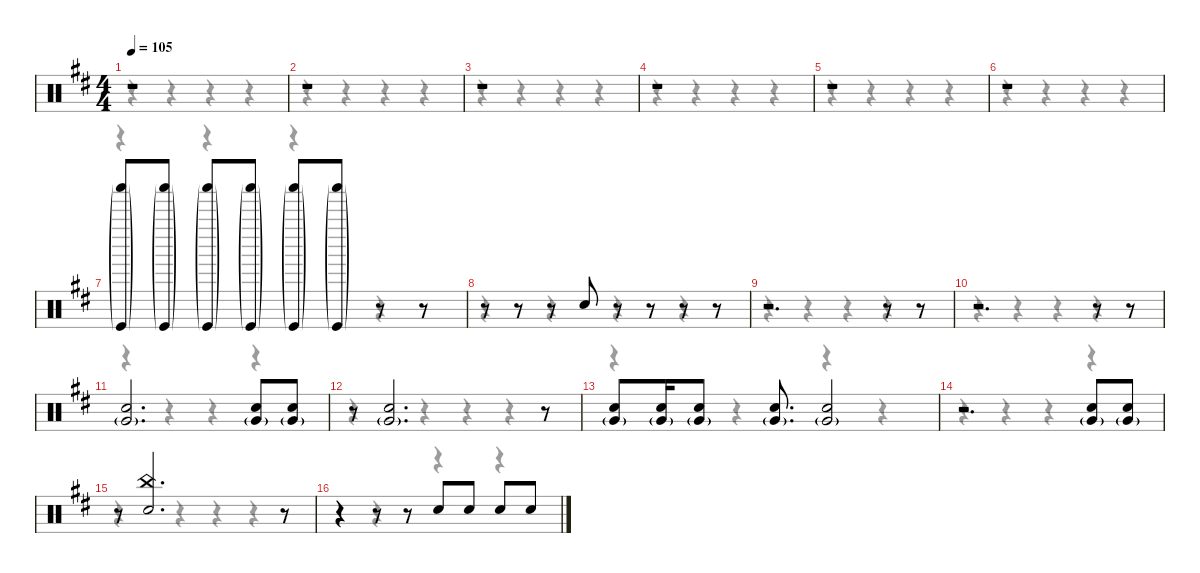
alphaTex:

\defaultSystemsLayout 4
\hideDynamics
\bracketExtendMode nobrackets
\singleTrackTrackNamePolicy hidden
\multiTrackTrackNamePolicy hidden
\firstSystemTrackNameMode fullname
\firstSystemTrackNameOrientation horizontal
\otherSystemsTrackNameOrientation horizontal
\track ("Drums" "drm.") {instrument percussion}
\staff {score}
\articulation defaults
\voice
\ts (4 4)
\tempo 105
\clef neutral
\ks bminor
r.1{dy mf beam Up} |
r.1{beam Up} |
r.1{beam Up} |
r.1{beam Up} |
r.1{beam Up} |
r.1{beam Up} |
("Shaker (hit)"{g acc forcenatural} "Kick (hit)"{g acc forcenatural}).8{dy pp beam Up} ("Shaker (hit)"{g acc forcenatural} "Kick (hit)"{g acc forcenatural}).8{dy p beam Up} ("Shaker (hit)"{g acc forcenatural} "Kick (hit)"{g acc forcenatural}).8{beam Up} ("Shaker (hit)"{g acc forcenatural} "Kick (hit)"{g acc forcenatural}).8{dy mp beam Up} ("Shaker (hit)"{g acc forcenatural} "Kick (hit)"{g acc forcenatural}).8{beam Up} ("Shaker (hit)"{g acc forcenatural} "Kick (hit)"{g acc forcenatural}).8{beam Up} r.8{beam Up} r.8{beam Up} |
r.8{beam Up} r.8{beam Up} r.8{beam Up} "Snare (hit) 2"{acc forcenatural}.8{dy f beam Up} r.8{beam Up} r.8{beam Up} r.8{beam Up} r.8{beam Up} |
r.2{d beam Up} r.8{beam Up} r.8{beam Up} |
r.2{d beam Up} r.8{beam Up} r.8{beam Up} |
("Snare (hit) 2"{acc forcenatural} "Very Low Tom (hit)"{g acc forcenatural}).2{d beam Up} ("Snare (hit) 2"{acc forcenatural} "Very Low Tom (hit)"{g acc forcenatural}).8{beam Up} ("Snare (hit) 2"{acc forcenatural} "Very Low Tom (hit)"{g acc forcenatural}).8{beam Up} |
r.8{beam Up} ("Snare (hit) 2"{acc forcenatural} "Very Low Tom (hit)"{g acc forcenatural}).2{d beam Up} r.8{beam Up} |
("Snare (hit) 2"{acc forcenatural} "Very Low Tom (hit)"{g acc forcenatural}).8{beam Up} ("Snare (hit) 2"{acc forcenatural} "Very Low Tom (hit)"{g acc forcenatural}).16{beam Up} ("Snare (hit) 2"{acc forcenatural} "Very Low Tom (hit)"{g acc forcenatural}).8{beam Up} ("Snare (hit) 2"{acc forcenatural} "Very Low Tom (hit)"{g acc forcenatural}).8{d beam Up} ("Snare (hit) 2"{acc forcenatural} "Very Low Tom (hit)"{g acc forcenatural}).2{beam Up} |
r.2{d beam Up} ("Snare (hit) 2"{acc forcenatural} "Very Low Tom (hit)"{g acc forcenatural}).8{beam Up} ("Snare (hit) 2"{acc forcenatural} "Very Low Tom (hit)"{g acc forcenatural}).8{beam Up} |
r.8{beam Up} ("China (hit)"{acc forcenatural} "Snare (hit) 2"{acc forcenatural}).2{d beam Up} r.8{beam Up} |
r.4{beam Up} r.8{beam Up} r.8{beam Up} "Snare (hit) 2"{acc forcenatural}.8{dy pp beam Up} "Snare (hit) 2"{acc forcenatural}.8{dy mp beam Up} "Snare (hit) 2"{acc forcenatural}.8{dy mf beam Up} "Snare (hit) 2"{acc forcenatural}.8{dy mp beam Up}
\voice
\clef neutral
\ottava regular
\simile none
\ks bminor
r.4{dy mf beam Down} r.4{beam Down} r.4{beam Down} r.4{beam Down} |
r.4{beam Down} r.4{beam Down} r.4{beam Down} r.4{beam Down} |
r.4{beam Down} r.4{beam Down} r.4{beam Down} r.4{beam Down} |
r.4{beam Down} r.4{beam Down} r.4{beam Down} r.4{beam Down} |
r.4{beam Down} r.4{beam Down} r.4{beam Down} r.4{beam Down} |
r.4{beam Down} r.4{beam Down} r.4{beam Down} r.4{beam Down} |
r.4{beam Down} r.4{beam Down} r.4{beam Down} r.4{beam Down} |
r.4{beam Down} r.4{beam Down} r.4{beam Down} r.4{beam Down} |
r.4{beam Down} r.4{beam Down} r.4{beam Down} r.4{beam Down} |
r.4{beam Down} r.4{beam Down} r.4{beam Down} r.4{beam Down} |
r.4{beam Down} r.4{beam Down} r.4{beam Down} r.4{beam Down} |
r.4{beam Down} r.4{beam Down} r.4{beam Down} r.4{beam Down} |
r.4{beam Down} r.4{beam Down} r.4{beam Down} r.4{beam Down} |
r.4{beam Down} r.4{beam Down} r.4{beam Down} r.4{beam Down} |
r.4{beam Down} r.4{beam Down} r.4{beam Down} r.4{beam Down} |
r.4{beam Down} r.4{beam Down} r.4{beam Down} r.4{beam Down}
